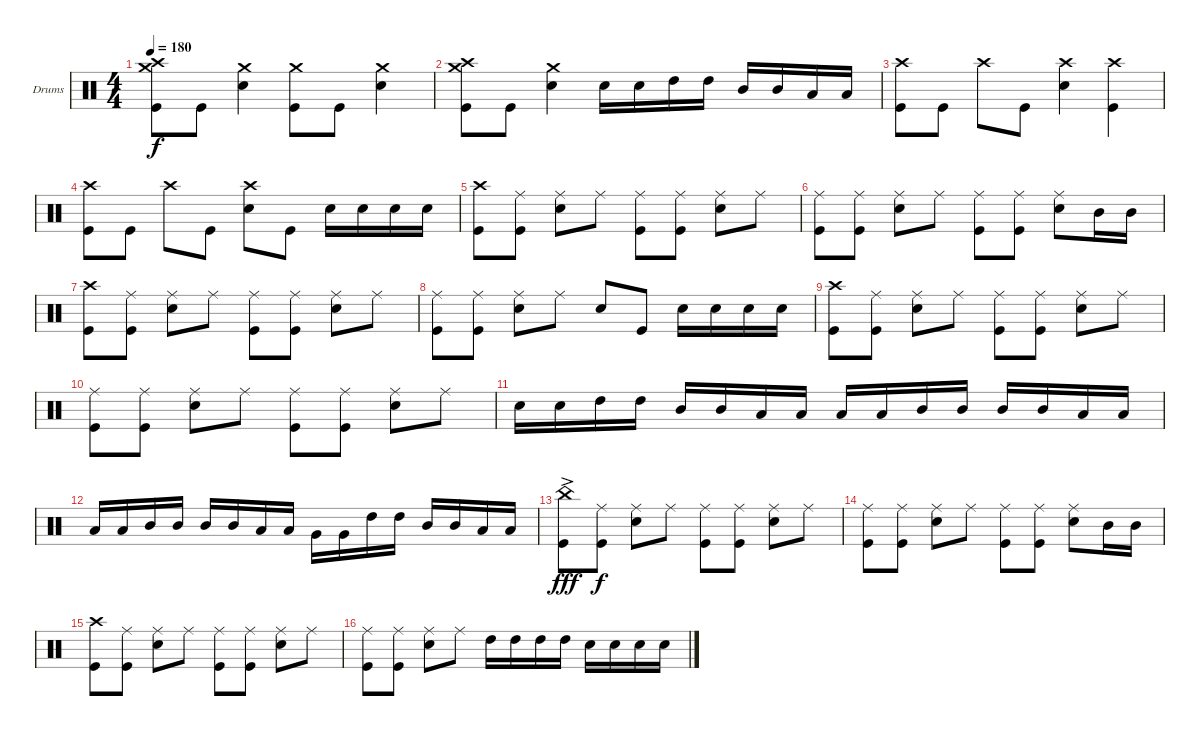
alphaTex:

\defaultSystemsLayout 4
\bracketExtendMode groupsimilarinstruments
\firstSystemTrackNameOrientation horizontal
\otherSystemsTrackNameOrientation horizontal
\track ("Барабаны" "Drums") {instrument percussion}
\staff {score}
\articulation defaults
\ts (4 4)
\tempo 180
\clef neutral
\scale
0.333333
\ks c
("Crash high (hit)" "Crash medium (hit)" "Kick (hit)").8{dy f} "Kick (hit)".8 ("Crash medium (hit)" "Snare (hit) 2").4 ("Crash medium (hit)" "Kick (hit)").8 "Kick (hit)".8 ("Crash medium (hit)" "Snare (hit) 2").4 |
\scale
0.333333 ("Crash high (hit)" "Crash medium (hit)" "Kick (hit)").8 "Kick (hit)".8 ("Crash medium (hit)" "Snare (hit) 2").4 "Snare (hit) 2".16 "Snare (hit) 2".16 "High Tom (hit)".16 "High Tom (hit)".16 "Mid Tom (hit)".16 "Mid Tom (hit)".16 "Low Tom (hit)".16 "Low Tom (hit)".16 |
\scale
0.333333 ("Crash high (hit)" "Kick (hit)").8 "Kick (hit)".8 "Crash high (hit)".8 "Kick (hit)".8 ("Crash high (hit)" "Snare (hit) 2").4 ("Crash high (hit)" "Kick (hit)").4 |
\scale
0.333333 ("Crash high (hit)" "Kick (hit)").8 "Kick (hit)".8 "Crash high (hit)".8 "Kick (hit)".8 ("Crash high (hit)" "Snare (hit) 2").8 "Kick (hit)".8 "Snare (hit) 2".16 "Snare (hit) 2".16 "Snare (hit) 2".16 "Snare (hit) 2".16 |
\scale
0.333333 ("Crash high (hit)" "Kick (hit)").8 ("Ride (middle)" "Kick (hit)").8 ("Ride (middle)" "Snare (hit) 2").8 "Ride (middle)".8 ("Ride (middle)" "Kick (hit)").8 ("Ride (middle)" "Kick (hit)").8 ("Ride (middle)" "Snare (hit) 2").8 "Ride (middle)".8 |
\scale
0.333333 ("Ride (middle)" "Kick (hit)").8 ("Ride (middle)" "Kick (hit)").8 ("Ride (middle)" "Snare (hit) 2").8 "Ride (middle)".8 ("Ride (middle)" "Kick (hit)").8 ("Ride (middle)" "Kick (hit)").8 ("Ride (middle)" "Snare (hit) 2").8 "Mid Tom (hit)".16 "Mid Tom (hit)".16 |
\scale
0.333333 ("Crash high (hit)" "Kick (hit)").8 ("Ride (middle)" "Kick (hit)").8 ("Ride (middle)" "Snare (hit) 2").8 "Ride (middle)".8 ("Ride (middle)" "Kick (hit)").8 ("Ride (middle)" "Kick (hit)").8 ("Ride (middle)" "Snare (hit) 2").8 "Ride (middle)".8 |
\scale
0.333333 ("Ride (middle)" "Kick (hit)").8 ("Ride (middle)" "Kick (hit)").8 ("Ride (middle)" "Snare (hit) 2").8 "Ride (middle)".8 "Snare (hit) 2".8 "Kick (hit)".8 "Snare (hit) 2".16 "Snare (hit) 2".16 "Snare (hit) 2".16 "Snare (hit) 2".16 |
\scale
0.333333 ("Crash high (hit)" "Kick (hit)").8 ("Ride (middle)" "Kick (hit)").8 ("Ride (middle)" "Snare (hit) 2").8 "Ride (middle)".8 ("Ride (middle)" "Kick (hit)").8 ("Ride (middle)" "Kick (hit)").8 ("Ride (middle)" "Snare (hit) 2").8 "Ride (middle)".8 |
\scale
0.333333 ("Ride (middle)" "Kick (hit)").8 ("Ride (middle)" "Kick (hit)").8 ("Ride (middle)" "Snare (hit) 2").8 "Ride (middle)".8 ("Ride (middle)" "Kick (hit)").8 ("Ride (middle)" "Kick (hit)").8 ("Ride (middle)" "Snare (hit) 2").8 "Ride (middle)".8 |
\scale
0.333333 "Snare (hit) 2".16 "Snare (hit) 2".16 "High Tom (hit)".16 "High Tom (hit)".16 "Mid Tom (hit)".16 "Mid Tom (hit)".16 "Low Tom (hit)".16 "Low Tom (hit)".16 "Low Tom (hit)".16 "Low Tom (hit)".16 "Mid Tom (hit)".16 "Mid Tom (hit)".16 "Mid Tom (hit)".16 "Mid Tom (hit)".16 "Low Tom (hit)".16 "Low Tom (hit)".16 |
\scale
0.333333 "Low Tom (hit)".16 "Low Tom (hit)".16 "Mid Tom (hit)".16 "Mid Tom (hit)".16 "Mid Tom (hit)".16 "Mid Tom (hit)".16 "Low Tom (hit)".16 "Low Tom (hit)".16 "Very Low Tom (hit)".16 "Very Low Tom (hit)".16 "High Tom (hit)".16 "High Tom (hit)".16 "Mid Tom (hit)".16 "Mid Tom (hit)".16 "Low Tom (hit)".16 "Low Tom (hit)".16 |
\scale
0.333333 ("China (hit)"{ac} "Kick (hit)").8{dy fff} ("Ride (middle)" "Kick (hit)").8{dy f} ("Ride (middle)" "Snare (hit) 2").8 "Ride (middle)".8 ("Ride (middle)" "Kick (hit)").8 ("Ride (middle)" "Kick (hit)").8 ("Ride (middle)" "Snare (hit) 2").8 "Ride (middle)".8 |
\scale
0.333333 ("Ride (middle)" "Kick (hit)").8 ("Ride (middle)" "Kick (hit)").8 ("Ride (middle)" "Snare (hit) 2").8 "Ride (middle)".8 ("Ride (middle)" "Kick (hit)").8 ("Ride (middle)" "Kick (hit)").8 ("Ride (middle)" "Snare (hit) 2").8 "Mid Tom (hit)".16 "Mid Tom (hit)".16 |
\scale
0.333333 ("Crash high (hit)" "Kick (hit)").8 ("Ride (middle)" "Kick (hit)").8 ("Ride (middle)" "Snare (hit) 2").8 "Ride (middle)".8 ("Ride (middle)" "Kick (hit)").8 ("Ride (middle)" "Kick (hit)").8 ("Ride (middle)" "Snare (hit) 2").8 "Ride (middle)".8 |
\scale
0.333333 ("Ride (middle)" "Kick (hit)").8 ("Ride (middle)" "Kick (hit)").8 ("Ride (middle)" "Snare (hit) 2").8 "Ride (middle)".8 "High Tom (hit)".16 "High Tom (hit)".16 "High Tom (hit)".16 "High Tom (hit)".16 "Snare (hit) 2".16 "Snare (hit) 2".16 "Snare (hit) 2".16 "Snare (hit) 2".16
